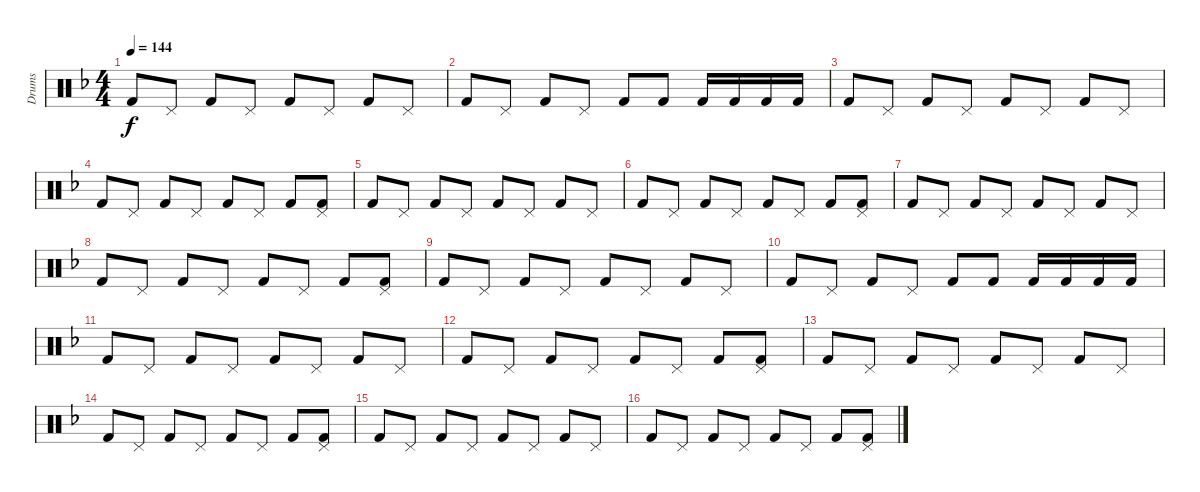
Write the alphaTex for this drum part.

\track ("Drums" "Drums") {instrument percussion}
\staff {score}
\articulation defaults
\ts (4 4)
\tempo 144
\clef neutral
\ks f "Kick (hit) 2".8{dy f} "Pedal Hi-Hat (hit)".8 "Kick (hit) 2".8 "Pedal Hi-Hat (hit)".8 "Kick (hit) 2".8 "Pedal Hi-Hat (hit)".8 "Kick (hit) 2".8 "Pedal Hi-Hat (hit)".8
|
"Kick (hit) 2".8 "Pedal Hi-Hat (hit)".8 "Kick (hit) 2".8 "Pedal Hi-Hat (hit)".8 "Kick (hit) 2".8 "Kick (hit) 2".8 "Kick (hit) 2".16 "Kick (hit) 2".16 "Kick (hit) 2".16 "Kick (hit) 2".16 |
"Kick (hit) 2".8 "Pedal Hi-Hat (hit)".8 "Kick (hit) 2".8 "Pedal Hi-Hat (hit)".8 "Kick (hit) 2".8 "Pedal Hi-Hat (hit)".8 "Kick (hit) 2".8 "Pedal Hi-Hat (hit)".8 |
"Kick (hit) 2".8 "Pedal Hi-Hat (hit)".8 "Kick (hit) 2".8 "Pedal Hi-Hat (hit)".8 "Kick (hit) 2".8 "Pedal Hi-Hat (hit)".8 "Kick (hit) 2".8 ("Kick (hit) 2" "Pedal Hi-Hat (hit)").8 |
"Kick (hit) 2".8 "Pedal Hi-Hat (hit)".8 "Kick (hit) 2".8 "Pedal Hi-Hat (hit)".8 "Kick (hit) 2".8 "Pedal Hi-Hat (hit)".8 "Kick (hit) 2".8 "Pedal Hi-Hat (hit)".8 |
"Kick (hit) 2".8 "Pedal Hi-Hat (hit)".8 "Kick (hit) 2".8 "Pedal Hi-Hat (hit)".8 "Kick (hit) 2".8 "Pedal Hi-Hat (hit)".8 "Kick (hit) 2".8 ("Kick (hit) 2" "Pedal Hi-Hat (hit)").8 |
"Kick (hit) 2".8 "Pedal Hi-Hat (hit)".8 "Kick (hit) 2".8 "Pedal Hi-Hat (hit)".8 "Kick (hit) 2".8 "Pedal Hi-Hat (hit)".8 "Kick (hit) 2".8 "Pedal Hi-Hat (hit)".8 |
"Kick (hit) 2".8 "Pedal Hi-Hat (hit)".8 "Kick (hit) 2".8 "Pedal Hi-Hat (hit)".8 "Kick (hit) 2".8 "Pedal Hi-Hat (hit)".8 "Kick (hit) 2".8 ("Kick (hit) 2" "Pedal Hi-Hat (hit)").8 |
"Kick (hit) 2".8 "Pedal Hi-Hat (hit)".8 "Kick (hit) 2".8 "Pedal Hi-Hat (hit)".8 "Kick (hit) 2".8 "Pedal Hi-Hat (hit)".8 "Kick (hit) 2".8 "Pedal Hi-Hat (hit)".8 |
"Kick (hit) 2".8 "Pedal Hi-Hat (hit)".8 "Kick (hit) 2".8 "Pedal Hi-Hat (hit)".8 "Kick (hit) 2".8 "Kick (hit) 2".8 "Kick (hit) 2".16 "Kick (hit) 2".16 "Kick (hit) 2".16 "Kick (hit) 2".16 |
"Kick (hit) 2".8 "Pedal Hi-Hat (hit)".8 "Kick (hit) 2".8 "Pedal Hi-Hat (hit)".8 "Kick (hit) 2".8 "Pedal Hi-Hat (hit)".8 "Kick (hit) 2".8 "Pedal Hi-Hat (hit)".8 |
"Kick (hit) 2".8 "Pedal Hi-Hat (hit)".8 "Kick (hit) 2".8 "Pedal Hi-Hat (hit)".8 "Kick (hit) 2".8 "Pedal Hi-Hat (hit)".8 "Kick (hit) 2".8 ("Kick (hit) 2" "Pedal Hi-Hat (hit)").8 |
"Kick (hit) 2".8 "Pedal Hi-Hat (hit)".8 "Kick (hit) 2".8 "Pedal Hi-Hat (hit)".8 "Kick (hit) 2".8 "Pedal Hi-Hat (hit)".8 "Kick (hit) 2".8 "Pedal Hi-Hat (hit)".8 |
"Kick (hit) 2".8 "Pedal Hi-Hat (hit)".8 "Kick (hit) 2".8 "Pedal Hi-Hat (hit)".8 "Kick (hit) 2".8 "Pedal Hi-Hat (hit)".8 "Kick (hit) 2".8 ("Kick (hit) 2" "Pedal Hi-Hat (hit)").8 |
"Kick (hit) 2".8 "Pedal Hi-Hat (hit)".8 "Kick (hit) 2".8 "Pedal Hi-Hat (hit)".8 "Kick (hit) 2".8 "Pedal Hi-Hat (hit)".8 "Kick (hit) 2".8 "Pedal Hi-Hat (hit)".8 |
"Kick (hit) 2".8 "Pedal Hi-Hat (hit)".8 "Kick (hit) 2".8 "Pedal Hi-Hat (hit)".8 "Kick (hit) 2".8 "Pedal Hi-Hat (hit)".8 "Kick (hit) 2".8 ("Kick (hit) 2" "Pedal Hi-Hat (hit)").8
